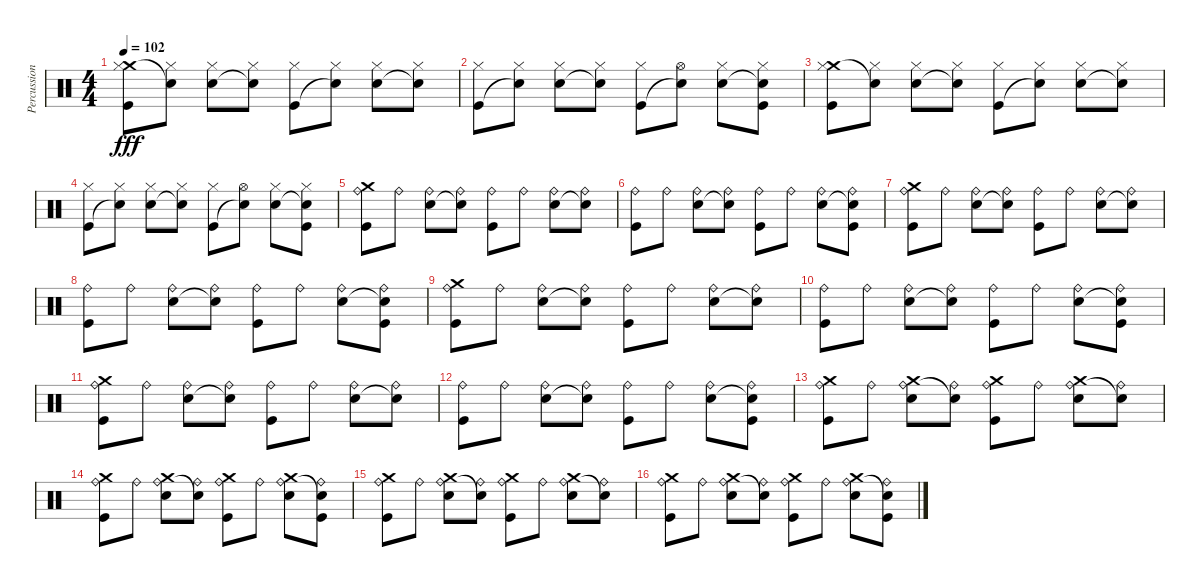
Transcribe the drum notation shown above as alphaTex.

\track ("Percussion" "Percussion") {instrument percussion}
\staff {score}
\articulation defaults
\ts (4 4)
\tempo 102
\clef neutral
\ks aminor
("Crash medium (hit)" "Hi-Hat (closed)" "Kick (hit)").8{dy fff} ("Hi-Hat (closed)" "Snare (hit)"{t}).8 ("Hi-Hat (closed)" "Electric Snare (hit)").8 ("Hi-Hat (closed)" "Electric Snare (hit)"{t}).8 ("Hi-Hat (closed)" "Kick (hit)").8 ("Hi-Hat (closed)" "Snare (hit)"{t}).8 ("Hi-Hat (closed)" "Electric Snare (hit)").8 ("Hi-Hat (closed)" "Snare (hit)"{t}).8 |
("Hi-Hat (closed)" "Kick (hit)").8 ("Hi-Hat (closed)" "Snare (hit)"{t}).8 ("Hi-Hat (closed)" "Electric Snare (hit)").8 ("Hi-Hat (closed)" "Electric Snare (hit)"{t}).8 ("Hi-Hat (closed)" "Kick (hit)").8 ("Hi-Hat (open)" "Snare (hit)"{t}).8 ("Hi-Hat (closed)" "Electric Snare (hit)").8 ("Hi-Hat (closed)" "Snare (hit)"{t} "Kick (hit)").8 |
("Crash medium (hit)" "Hi-Hat (closed)" "Kick (hit)").8 ("Hi-Hat (closed)" "Snare (hit)"{t}).8 ("Hi-Hat (closed)" "Electric Snare (hit)").8 ("Hi-Hat (closed)" "Electric Snare (hit)"{t}).8 ("Hi-Hat (closed)" "Kick (hit)").8 ("Hi-Hat (closed)" "Snare (hit)"{t}).8 ("Hi-Hat (closed)" "Electric Snare (hit)").8 ("Hi-Hat (closed)" "Snare (hit)"{t}).8 |
("Hi-Hat (closed)" "Kick (hit)").8 ("Hi-Hat (closed)" "Snare (hit)"{t}).8 ("Hi-Hat (closed)" "Electric Snare (hit)").8 ("Hi-Hat (closed)" "Electric Snare (hit)"{t}).8 ("Hi-Hat (closed)" "Kick (hit)").8 ("Hi-Hat (open)" "Snare (hit)"{t}).8 ("Hi-Hat (closed)" "Electric Snare (hit)").8 ("Hi-Hat (closed)" "Snare (hit)"{t} "Kick (hit)").8 |
("Crash medium (hit)" "Ride (bell)" "Kick (hit)").8 "Ride (bell)".8 ("Ride (bell)" "Electric Snare (hit)").8 ("Ride (bell)" "Electric Snare (hit)"{t}).8 ("Ride (bell)" "Kick (hit)").8 "Ride (bell)".8 ("Ride (bell)" "Electric Snare (hit)").8 ("Ride (bell)" "Snare (hit)"{t}).8 |
("Ride (bell)" "Kick (hit)").8 "Ride (bell)".8 ("Ride (bell)" "Electric Snare (hit)").8 ("Ride (bell)" "Electric Snare (hit)"{t}).8 ("Ride (bell)" "Kick (hit)").8 "Ride (bell)".8 ("Ride (bell)" "Electric Snare (hit)").8 ("Ride (bell)" "Snare (hit)"{t} "Kick (hit)").8 |
("Crash medium (hit)" "Ride (bell)" "Kick (hit)").8 "Ride (bell)".8 ("Ride (bell)" "Electric Snare (hit)").8 ("Ride (bell)" "Electric Snare (hit)"{t}).8 ("Ride (bell)" "Kick (hit)").8 "Ride (bell)".8 ("Ride (bell)" "Electric Snare (hit)").8 ("Ride (bell)" "Snare (hit)"{t}).8 |
("Ride (bell)" "Kick (hit)").8 "Ride (bell)".8 ("Ride (bell)" "Electric Snare (hit)").8 ("Ride (bell)" "Electric Snare (hit)"{t}).8 ("Ride (bell)" "Kick (hit)").8 "Ride (bell)".8 ("Ride (bell)" "Electric Snare (hit)").8 ("Ride (bell)" "Snare (hit)"{t} "Kick (hit)").8 |
("Crash medium (hit)" "Ride (bell)" "Kick (hit)").8 "Ride (bell)".8 ("Ride (bell)" "Electric Snare (hit)").8 ("Ride (bell)" "Electric Snare (hit)"{t}).8 ("Ride (bell)" "Kick (hit)").8 "Ride (bell)".8 ("Ride (bell)" "Electric Snare (hit)").8 ("Ride (bell)" "Snare (hit)"{t}).8 |
("Ride (bell)" "Kick (hit)").8 "Ride (bell)".8 ("Ride (bell)" "Electric Snare (hit)").8 ("Ride (bell)" "Electric Snare (hit)"{t}).8 ("Ride (bell)" "Kick (hit)").8 "Ride (bell)".8 ("Ride (bell)" "Electric Snare (hit)").8 ("Ride (bell)" "Snare (hit)"{t} "Kick (hit)").8 |
("Crash medium (hit)" "Ride (bell)" "Kick (hit)").8 "Ride (bell)".8 ("Ride (bell)" "Electric Snare (hit)").8 ("Ride (bell)" "Electric Snare (hit)"{t}).8 ("Ride (bell)" "Kick (hit)").8 "Ride (bell)".8 ("Ride (bell)" "Electric Snare (hit)").8 ("Ride (bell)" "Snare (hit)"{t}).8 |
("Ride (bell)" "Kick (hit)").8 "Ride (bell)".8 ("Ride (bell)" "Electric Snare (hit)").8 ("Ride (bell)" "Electric Snare (hit)"{t}).8 ("Ride (bell)" "Kick (hit)").8 "Ride (bell)".8 ("Ride (bell)" "Electric Snare (hit)").8 ("Ride (bell)" "Snare (hit)"{t} "Kick (hit)").8 |
("Crash medium (hit)" "Ride (bell)" "Kick (hit)").8 "Ride (bell)".8 ("Crash medium (hit)" "Ride (bell)" "Electric Snare (hit)").8 ("Ride (bell)" "Electric Snare (hit)"{t}).8 ("Crash medium (hit)" "Ride (bell)" "Kick (hit)").8 "Ride (bell)".8 ("Crash medium (hit)" "Ride (bell)" "Electric Snare (hit)").8 ("Ride (bell)" "Snare (hit)"{t}).8 |
("Crash medium (hit)" "Ride (bell)" "Kick (hit)").8 "Ride (bell)".8 ("Crash medium (hit)" "Ride (bell)" "Electric Snare (hit)").8 ("Ride (bell)" "Electric Snare (hit)"{t}).8 ("Crash medium (hit)" "Ride (bell)" "Kick (hit)").8 "Ride (bell)".8 ("Crash medium (hit)" "Ride (bell)" "Electric Snare (hit)").8 ("Ride (bell)" "Snare (hit)"{t} "Kick (hit)").8 |
("Crash medium (hit)" "Ride (bell)" "Kick (hit)").8 "Ride (bell)".8 ("Crash medium (hit)" "Ride (bell)" "Electric Snare (hit)").8 ("Ride (bell)" "Electric Snare (hit)"{t}).8 ("Crash medium (hit)" "Ride (bell)" "Kick (hit)").8 "Ride (bell)".8 ("Crash medium (hit)" "Ride (bell)" "Electric Snare (hit)").8 ("Ride (bell)" "Snare (hit)"{t}).8 |
("Crash medium (hit)" "Ride (bell)" "Kick (hit)").8 "Ride (bell)".8 ("Crash medium (hit)" "Ride (bell)" "Electric Snare (hit)").8 ("Ride (bell)" "Electric Snare (hit)"{t}).8 ("Crash medium (hit)" "Ride (bell)" "Kick (hit)").8 "Ride (bell)".8 ("Crash medium (hit)" "Ride (bell)" "Electric Snare (hit)").8 ("Ride (bell)" "Snare (hit)"{t} "Kick (hit)").8
